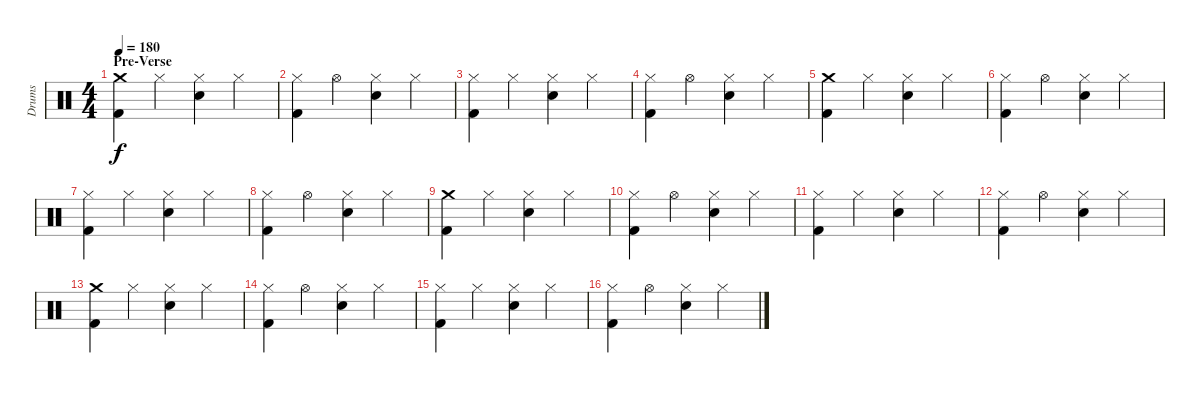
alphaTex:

\track ("Drums" "Drums") {instrument percussion}
\staff {score}
\articulation defaults
\ts (4 4)
\section ("" "Pre-Verse")
\tempo 180
\clef neutral
\ks c
("Crash medium (hit)" "Kick (hit) 2").4{dy f} "Hi-Hat (closed)".4 ("Hi-Hat (closed)" "Snare (hit) 2").4 "Hi-Hat (closed)".4 |
("Hi-Hat (closed)" "Kick (hit) 2").4 "Hi-Hat (open)".4 ("Hi-Hat (closed)" "Snare (hit) 2").4 "Hi-Hat (closed)".4 |
("Hi-Hat (closed)" "Kick (hit) 2").4 "Hi-Hat (closed)".4 ("Hi-Hat (closed)" "Snare (hit) 2").4 "Hi-Hat (closed)".4 |
("Hi-Hat (closed)" "Kick (hit) 2").4 "Hi-Hat (open)".4 ("Hi-Hat (closed)" "Snare (hit) 2").4 "Hi-Hat (closed)".4 |
("Crash medium (hit)" "Kick (hit) 2").4 "Hi-Hat (closed)".4 ("Hi-Hat (closed)" "Snare (hit) 2").4 "Hi-Hat (closed)".4 |
("Hi-Hat (closed)" "Kick (hit) 2").4 "Hi-Hat (open)".4 ("Hi-Hat (closed)" "Snare (hit) 2").4 "Hi-Hat (closed)".4 |
("Hi-Hat (closed)" "Kick (hit) 2").4 "Hi-Hat (closed)".4 ("Hi-Hat (closed)" "Snare (hit) 2").4 "Hi-Hat (closed)".4 |
("Hi-Hat (closed)" "Kick (hit) 2").4 "Hi-Hat (open)".4 ("Hi-Hat (closed)" "Snare (hit) 2").4 "Hi-Hat (closed)".4 |
("Crash medium (hit)" "Kick (hit) 2").4 "Hi-Hat (closed)".4 ("Hi-Hat (closed)" "Snare (hit) 2").4 "Hi-Hat (closed)".4 |
("Hi-Hat (closed)" "Kick (hit) 2").4 "Hi-Hat (open)".4 ("Hi-Hat (closed)" "Snare (hit) 2").4 "Hi-Hat (closed)".4 |
("Hi-Hat (closed)" "Kick (hit) 2").4 "Hi-Hat (closed)".4 ("Hi-Hat (closed)" "Snare (hit) 2").4 "Hi-Hat (closed)".4 |
("Hi-Hat (closed)" "Kick (hit) 2").4 "Hi-Hat (open)".4 ("Hi-Hat (closed)" "Snare (hit) 2").4 "Hi-Hat (closed)".4 |
("Crash medium (hit)" "Kick (hit) 2").4 "Hi-Hat (closed)".4 ("Hi-Hat (closed)" "Snare (hit) 2").4 "Hi-Hat (closed)".4 |
("Hi-Hat (closed)" "Kick (hit) 2").4 "Hi-Hat (open)".4 ("Hi-Hat (closed)" "Snare (hit) 2").4 "Hi-Hat (closed)".4 |
("Hi-Hat (closed)" "Kick (hit) 2").4 "Hi-Hat (closed)".4 ("Hi-Hat (closed)" "Snare (hit) 2").4 "Hi-Hat (closed)".4 |
("Hi-Hat (closed)" "Kick (hit) 2").4 "Hi-Hat (open)".4 ("Hi-Hat (closed)" "Snare (hit) 2").4 "Hi-Hat (closed)".4
